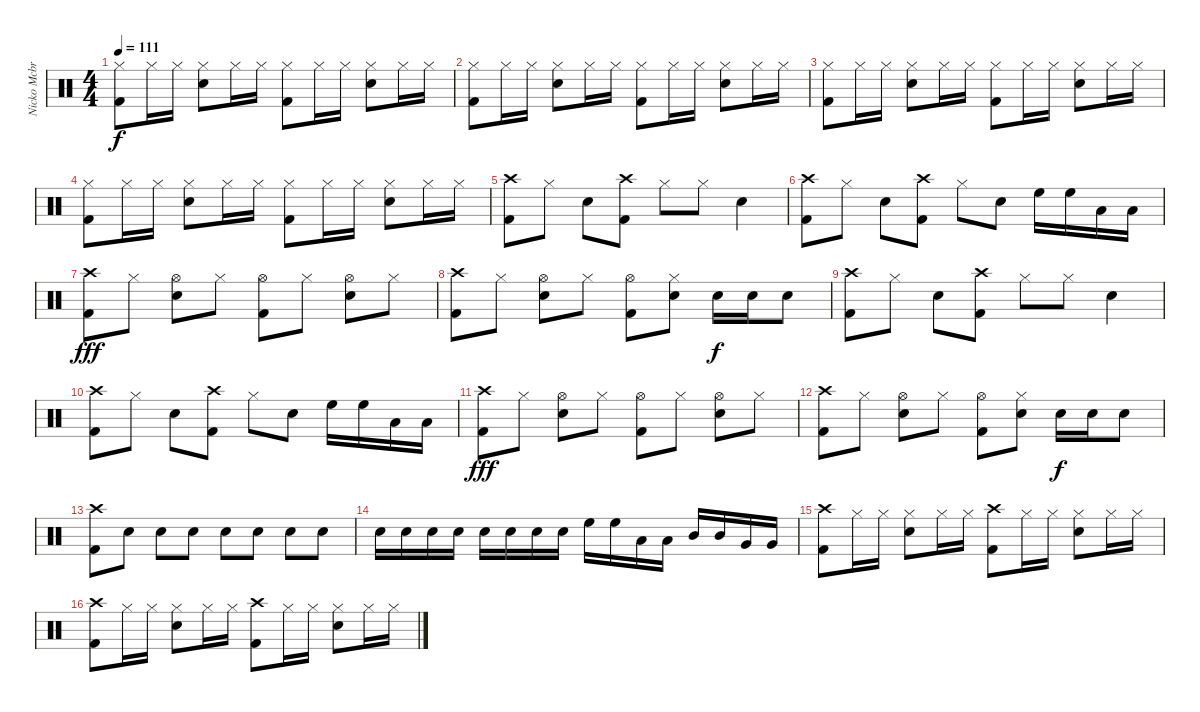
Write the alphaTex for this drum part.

\track ("Nicko Mcbrain" "Nicko Mcbr") {instrument percussion}
\staff {score}
\articulation defaults
\ts (4 4)
\tempo 111
\clef neutral
\ks c
("Hi-Hat (closed)" "Kick (hit) 2").8{dy f} "Hi-Hat (closed)".16 "Hi-Hat (closed)".16 ("Hi-Hat (closed)" "Snare (hit) 2").8 "Hi-Hat (closed)".16 "Hi-Hat (closed)".16 ("Hi-Hat (closed)" "Kick (hit) 2").8 "Hi-Hat (closed)".16 "Hi-Hat (closed)".16 ("Hi-Hat (closed)" "Snare (hit) 2").8 "Hi-Hat (closed)".16 "Hi-Hat (closed)".16 |
("Hi-Hat (closed)" "Kick (hit) 2").8 "Hi-Hat (closed)".16 "Hi-Hat (closed)".16 ("Hi-Hat (closed)" "Snare (hit) 2").8 "Hi-Hat (closed)".16 "Hi-Hat (closed)".16 ("Hi-Hat (closed)" "Kick (hit) 2").8 "Hi-Hat (closed)".16 "Hi-Hat (closed)".16 ("Hi-Hat (closed)" "Snare (hit) 2").8 "Hi-Hat (closed)".16 "Hi-Hat (closed)".16 |
("Hi-Hat (closed)" "Kick (hit) 2").8 "Hi-Hat (closed)".16 "Hi-Hat (closed)".16 ("Hi-Hat (closed)" "Snare (hit) 2").8 "Hi-Hat (closed)".16 "Hi-Hat (closed)".16 ("Hi-Hat (closed)" "Kick (hit) 2").8 "Hi-Hat (closed)".16 "Hi-Hat (closed)".16 ("Hi-Hat (closed)" "Snare (hit) 2").8 "Hi-Hat (closed)".16 "Hi-Hat (closed)".16 |
("Hi-Hat (closed)" "Kick (hit) 2").8 "Hi-Hat (closed)".16 "Hi-Hat (closed)".16 ("Hi-Hat (closed)" "Snare (hit) 2").8 "Hi-Hat (closed)".16 "Hi-Hat (closed)".16 ("Hi-Hat (closed)" "Kick (hit) 2").8 "Hi-Hat (closed)".16 "Hi-Hat (closed)".16 ("Hi-Hat (closed)" "Snare (hit) 2").8 "Hi-Hat (closed)".16 "Hi-Hat (closed)".16 |
("Crash high (hit)" "Kick (hit) 2").8 "Hi-Hat (closed)".8 "Snare (hit) 2".8 ("Crash high (hit)" "Kick (hit) 2").8 "Hi-Hat (closed)".8 "Hi-Hat (closed)".8 "Snare (hit) 2".4 |
("Crash high (hit)" "Kick (hit) 2").8 "Hi-Hat (closed)".8 "Snare (hit) 2".8 ("Crash high (hit)" "Kick (hit) 2").8 "Hi-Hat (closed)".8 "Snare (hit) 2".8 "High Floor Tom (hit)".16 "High Floor Tom (hit)".16 "Low Tom (hit)".16 "Low Tom (hit)".16 |
("Crash high (hit)" "Kick (hit) 2").8{dy fff} "Hi-Hat (closed)".8 ("Hi-Hat (open)" "Snare (hit) 2").8 "Hi-Hat (closed)".8 ("Hi-Hat (open)" "Kick (hit) 2").8 "Hi-Hat (closed)".8 ("Hi-Hat (open)" "Snare (hit) 2").8 "Hi-Hat (closed)".8 |
("Crash high (hit)" "Kick (hit) 2").8 "Hi-Hat (closed)".8 ("Hi-Hat (open)" "Snare (hit) 2").8 "Hi-Hat (closed)".8 ("Hi-Hat (open)" "Kick (hit) 2").8 ("Hi-Hat (closed)" "Snare (hit) 2").8 "Snare (hit) 2".16{dy f} "Snare (hit) 2".16 "Snare (hit) 2".8 |
("Crash high (hit)" "Kick (hit) 2").8 "Hi-Hat (closed)".8 "Snare (hit) 2".8 ("Crash high (hit)" "Kick (hit) 2").8 "Hi-Hat (closed)".8 "Hi-Hat (closed)".8 "Snare (hit) 2".4 |
("Crash high (hit)" "Kick (hit) 2").8 "Hi-Hat (closed)".8 "Snare (hit) 2".8 ("Crash high (hit)" "Kick (hit) 2").8 "Hi-Hat (closed)".8 "Snare (hit) 2".8 "High Floor Tom (hit)".16 "High Floor Tom (hit)".16 "Low Tom (hit)".16 "Low Tom (hit)".16 |
("Crash high (hit)" "Kick (hit) 2").8{dy fff} "Hi-Hat (closed)".8 ("Hi-Hat (open)" "Snare (hit) 2").8 "Hi-Hat (closed)".8 ("Hi-Hat (open)" "Kick (hit) 2").8 "Hi-Hat (closed)".8 ("Hi-Hat (open)" "Snare (hit) 2").8 "Hi-Hat (closed)".8 |
("Crash high (hit)" "Kick (hit) 2").8 "Hi-Hat (closed)".8 ("Hi-Hat (open)" "Snare (hit) 2").8 "Hi-Hat (closed)".8 ("Hi-Hat (open)" "Kick (hit) 2").8 ("Hi-Hat (closed)" "Snare (hit) 2").8 "Snare (hit) 2".16{dy f} "Snare (hit) 2".16 "Snare (hit) 2".8 |
("Crash high (hit)" "Kick (hit) 2").8 "Snare (hit) 2".8 "Snare (hit) 2".8 "Snare (hit) 2".8 "Snare (hit) 2".8 "Snare (hit) 2".8 "Snare (hit) 2".8 "Snare (hit) 2".8 |
"Snare (hit) 2".16 "Snare (hit) 2".16 "Snare (hit) 2".16 "Snare (hit) 2".16 "Snare (hit) 2".16 "Snare (hit) 2".16 "Snare (hit) 2".16 "Snare (hit) 2".16 "High Floor Tom (hit)".16 "High Floor Tom (hit)".16 "Low Tom (hit)".16 "Low Tom (hit)".16 "Mid Tom (hit)".16 "Mid Tom (hit)".16 "Very Low Tom (hit)".16 "Very Low Tom (hit)".16 |
("Crash high (hit)" "Kick (hit) 2").8 "Hi-Hat (closed)".16 "Hi-Hat (closed)".16 ("Hi-Hat (closed)" "Snare (hit) 2").8 "Hi-Hat (closed)".16 "Hi-Hat (closed)".16 ("Crash high (hit)" "Kick (hit) 2").8 "Hi-Hat (closed)".16 "Hi-Hat (closed)".16 ("Hi-Hat (closed)" "Snare (hit) 2").8 "Hi-Hat (closed)".16 "Hi-Hat (closed)".16 |
("Crash high (hit)" "Kick (hit) 2").8 "Hi-Hat (closed)".16 "Hi-Hat (closed)".16 ("Hi-Hat (closed)" "Snare (hit) 2").8 "Hi-Hat (closed)".16 "Hi-Hat (closed)".16 ("Crash high (hit)" "Kick (hit) 2").8 "Hi-Hat (closed)".16 "Hi-Hat (closed)".16 ("Hi-Hat (closed)" "Snare (hit) 2").8 "Hi-Hat (closed)".16 "Hi-Hat (closed)".16
